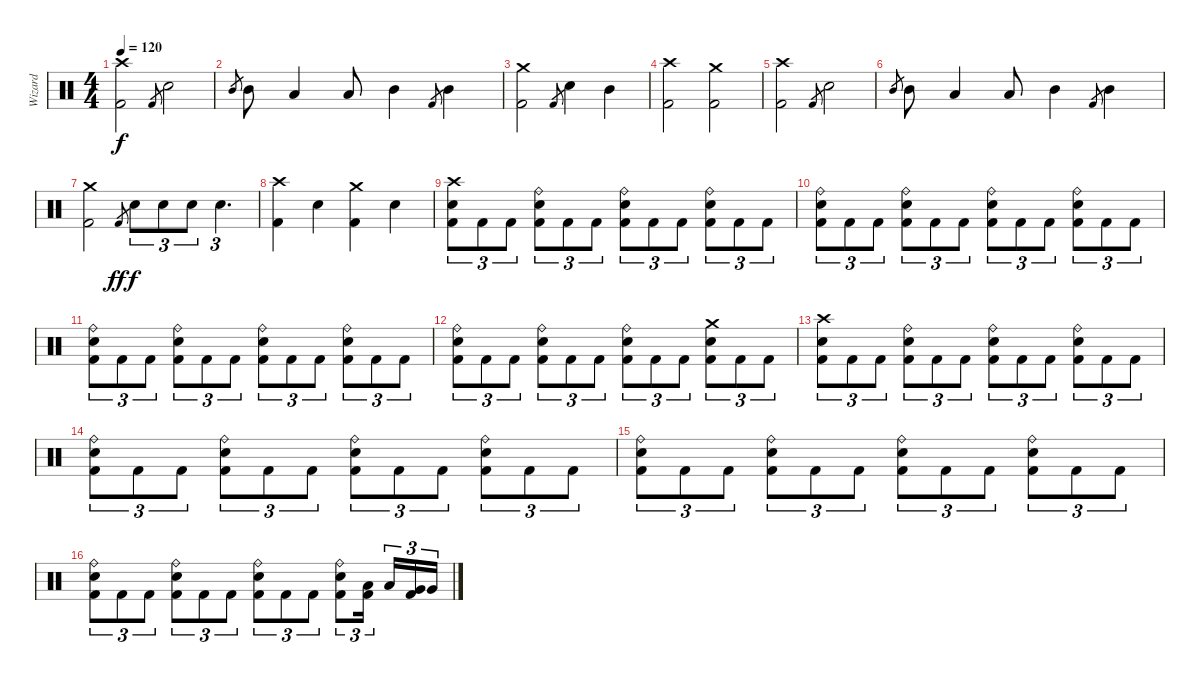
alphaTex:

\track ("Wizard" "Wizard") {instrument percussion}
\staff {score}
\articulation defaults
\ts (4 4)
\tempo 120
\clef neutral
\ks c
("Crash high (hit)" "Kick (hit) 2").2{dy f} "Kick (hit) 2".8{gr} "Snare (hit) 2".2 |
"Mid Tom (hit)".8{gr} "Mid Tom (hit)".8 "Low Tom (hit)".4 "Low Tom (hit)".8 "Mid Tom (hit)".4 "Kick (hit) 2".8{gr} "Mid Tom (hit)".4 |
("Crash medium (hit)" "Kick (hit) 2").2 "Kick (hit) 2".8{gr} "Snare (hit) 2".4 "Mid Tom (hit)".4 |
("Crash high (hit)" "Kick (hit) 2").2 ("Crash medium (hit)" "Kick (hit) 2").2 |
("Crash high (hit)" "Kick (hit) 2").2 "Kick (hit) 2".8{gr} "Snare (hit) 2".2 |
"Mid Tom (hit)".8{gr} "Mid Tom (hit)".8 "Low Tom (hit)".4 "Low Tom (hit)".8 "Mid Tom (hit)".4 "Kick (hit) 2".8{gr} "Mid Tom (hit)".4 |
("Crash medium (hit)" "Kick (hit) 2").2 "Kick (hit) 2".8{gr dy ff} "Snare (hit) 2".8{tu (3 2) dy f} "Snare (hit) 2".8{tu (3 2)} "Snare (hit) 2".8{tu (3 2)} "Snare (hit) 2".4{d tu (3 2)} |
("Crash high (hit)" "Kick (hit) 2").4 "Snare (hit) 2".4 ("Crash medium (hit)" "Kick (hit) 2").4 "Snare (hit) 2".4 |
("Crash high (hit)" "Snare (hit) 2" "Kick (hit) 2").8{tu (3 2)} "Kick (hit) 2".8{tu (3 2)} "Kick (hit) 2".8{tu (3 2)} ("Ride (bell)" "Snare (hit) 2" "Kick (hit) 2").8{tu (3 2)} "Kick (hit) 2".8{tu (3 2)} "Kick (hit) 2".8{tu (3 2)} ("Ride (bell)" "Snare (hit) 2" "Kick (hit) 2").8{tu (3 2)} "Kick (hit) 2".8{tu (3 2)} "Kick (hit) 2".8{tu (3 2)} ("Ride (bell)" "Snare (hit) 2" "Kick (hit) 2").8{tu (3 2)} "Kick (hit) 2".8{tu (3 2)} "Kick (hit) 2".8{tu (3 2)} |
("Ride (bell)" "Snare (hit) 2" "Kick (hit) 2").8{tu (3 2)} "Kick (hit) 2".8{tu (3 2)} "Kick (hit) 2".8{tu (3 2)} ("Ride (bell)" "Snare (hit) 2" "Kick (hit) 2").8{tu (3 2)} "Kick (hit) 2".8{tu (3 2)} "Kick (hit) 2".8{tu (3 2)} ("Ride (bell)" "Snare (hit) 2" "Kick (hit) 2").8{tu (3 2)} "Kick (hit) 2".8{tu (3 2)} "Kick (hit) 2".8{tu (3 2)} ("Ride (bell)" "Snare (hit) 2" "Kick (hit) 2").8{tu (3 2)} "Kick (hit) 2".8{tu (3 2)} "Kick (hit) 2".8{tu (3 2)} |
("Ride (bell)" "Snare (hit) 2" "Kick (hit) 2").8{tu (3 2)} "Kick (hit) 2".8{tu (3 2)} "Kick (hit) 2".8{tu (3 2)} ("Ride (bell)" "Snare (hit) 2" "Kick (hit) 2").8{tu (3 2)} "Kick (hit) 2".8{tu (3 2)} "Kick (hit) 2".8{tu (3 2)} ("Ride (bell)" "Snare (hit) 2" "Kick (hit) 2").8{tu (3 2)} "Kick (hit) 2".8{tu (3 2)} "Kick (hit) 2".8{tu (3 2)} ("Ride (bell)" "Snare (hit) 2" "Kick (hit) 2").8{tu (3 2)} "Kick (hit) 2".8{tu (3 2)} "Kick (hit) 2".8{tu (3 2)} |
("Ride (bell)" "Snare (hit) 2" "Kick (hit) 2").8{tu (3 2)} "Kick (hit) 2".8{tu (3 2)} "Kick (hit) 2".8{tu (3 2)} ("Ride (bell)" "Snare (hit) 2" "Kick (hit) 2").8{tu (3 2)} "Kick (hit) 2".8{tu (3 2)} "Kick (hit) 2".8{tu (3 2)} ("Ride (bell)" "Snare (hit) 2" "Kick (hit) 2").8{tu (3 2)} "Kick (hit) 2".8{tu (3 2)} "Kick (hit) 2".8{tu (3 2)} ("Crash medium (hit)" "Snare (hit) 2" "Kick (hit) 2").8{tu (3 2)} "Kick (hit) 2".8{tu (3 2)} "Kick (hit) 2".8{tu (3 2)} |
("Crash high (hit)" "Snare (hit) 2" "Kick (hit) 2").8{tu (3 2)} "Kick (hit) 2".8{tu (3 2)} "Kick (hit) 2".8{tu (3 2)} ("Ride (bell)" "Snare (hit) 2" "Kick (hit) 2").8{tu (3 2)} "Kick (hit) 2".8{tu (3 2)} "Kick (hit) 2".8{tu (3 2)} ("Ride (bell)" "Snare (hit) 2" "Kick (hit) 2").8{tu (3 2)} "Kick (hit) 2".8{tu (3 2)} "Kick (hit) 2".8{tu (3 2)} ("Ride (bell)" "Snare (hit) 2" "Kick (hit) 2").8{tu (3 2)} "Kick (hit) 2".8{tu (3 2)} "Kick (hit) 2".8{tu (3 2)} |
("Ride (bell)" "Snare (hit) 2" "Kick (hit) 2").8{tu (3 2)} "Kick (hit) 2".8{tu (3 2)} "Kick (hit) 2".8{tu (3 2)} ("Ride (bell)" "Snare (hit) 2" "Kick (hit) 2").8{tu (3 2)} "Kick (hit) 2".8{tu (3 2)} "Kick (hit) 2".8{tu (3 2)} ("Ride (bell)" "Snare (hit) 2" "Kick (hit) 2").8{tu (3 2)} "Kick (hit) 2".8{tu (3 2)} "Kick (hit) 2".8{tu (3 2)} ("Ride (bell)" "Snare (hit) 2" "Kick (hit) 2").8{tu (3 2)} "Kick (hit) 2".8{tu (3 2)} "Kick (hit) 2".8{tu (3 2)} |
("Ride (bell)" "Snare (hit) 2" "Kick (hit) 2").8{tu (3 2)} "Kick (hit) 2".8{tu (3 2)} "Kick (hit) 2".8{tu (3 2)} ("Ride (bell)" "Snare (hit) 2" "Kick (hit) 2").8{tu (3 2)} "Kick (hit) 2".8{tu (3 2)} "Kick (hit) 2".8{tu (3 2)} ("Ride (bell)" "Snare (hit) 2" "Kick (hit) 2").8{tu (3 2)} "Kick (hit) 2".8{tu (3 2)} "Kick (hit) 2".8{tu (3 2)} ("Ride (bell)" "Snare (hit) 2" "Kick (hit) 2").8{tu (3 2)} "Kick (hit) 2".8{tu (3 2)} "Kick (hit) 2".8{tu (3 2)} |
("Ride (bell)" "Snare (hit) 2" "Kick (hit) 2").8{tu (3 2)} "Kick (hit) 2".8{tu (3 2)} "Kick (hit) 2".8{tu (3 2)} ("Ride (bell)" "Snare (hit) 2" "Kick (hit) 2").8{tu (3 2)} "Kick (hit) 2".8{tu (3 2)} "Kick (hit) 2".8{tu (3 2)} ("Ride (bell)" "Snare (hit) 2" "Kick (hit) 2").8{tu (3 2)} "Kick (hit) 2".8{tu (3 2)} "Kick (hit) 2".8{tu (3 2)} ("Ride (bell)" "Snare (hit) 2" "Kick (hit) 2").8{tu (3 2)} ("Low Tom (hit)" "Kick (hit) 2").16{tu (3 2) beam splitsecondary} "Low Tom (hit)".16{tu (3 2)} ("Very Low Tom (hit)" "Kick (hit) 2").16{tu (3 2)} "Very Low Tom (hit)".16{tu (3 2)}
